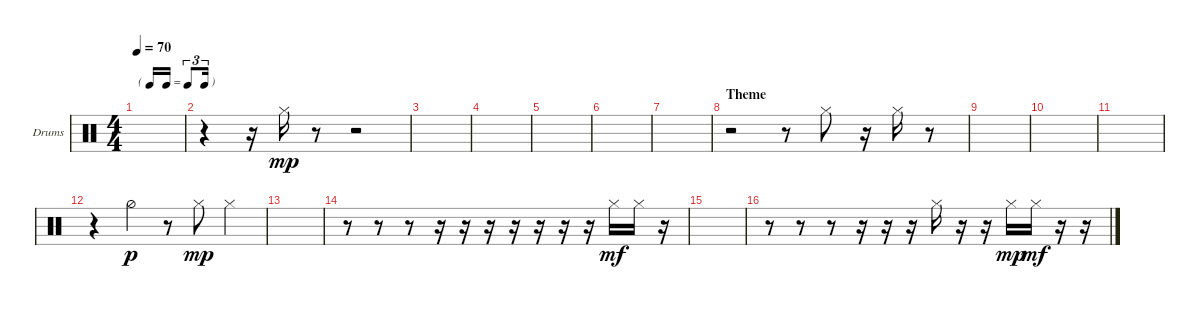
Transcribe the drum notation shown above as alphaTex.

\bracketExtendMode groupsimilarinstruments
\firstSystemTrackNameOrientation horizontal
\otherSystemsTrackNameOrientation horizontal
\track ("HH" "Drums") {instrument percussion}
\staff {score}
\articulation defaults
\ts (4 4)
\tf triplet16th
\tempo 70
\clef neutral
\ks aminor
|
r.4 r.16 "Hi-Hat (closed)".16{dy mp} r.8 r.2 |
|
|
|
|
|
\section ("" "Theme")
r.2 r.8 "Hi-Hat (closed)".8 r.16 "Hi-Hat (closed)".16 r.8 |
|
|
|
r.4 "Hi-Hat (half)".4{dy p} r.8 "Hi-Hat (closed)".8{dy mp} "Hi-Hat (closed)".4 |
|
r.8 r.8 r.8 r.16 r.16 r.16 r.16 r.16 r.16 r.16 "Hi-Hat (closed)".16{dy mf} "Hi-Hat (closed)".16 r.16 |
|
r.8 r.8 r.8 r.16 r.16 r.16 "Hi-Hat (closed)".16 r.16 r.16 "Hi-Hat (closed)".16{dy mp} "Hi-Hat (closed)".16{dy mf} r.16 r.16
